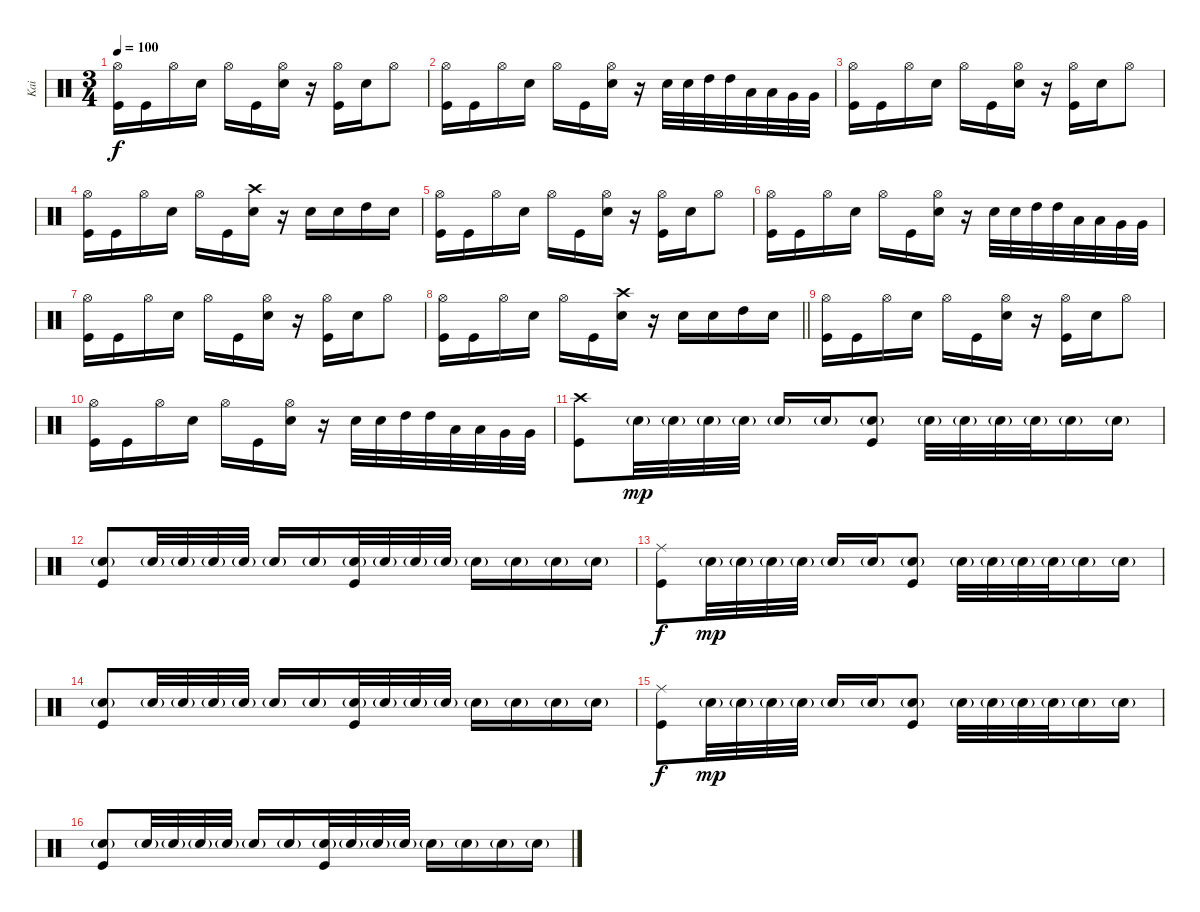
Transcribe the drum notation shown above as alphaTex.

\track ("Kai" "Kai") {instrument percussion}
\staff {score}
\articulation defaults
\ts (3 4)
\tempo 100
\clef neutral
\ks c
("Hi-Hat (open)" "Kick (hit)").16{dy f} "Kick (hit)".16 "Hi-Hat (open)".16 "Snare (hit) 2".16 "Hi-Hat (open)".16 "Kick (hit)".16 ("Hi-Hat (open)" "Snare (hit) 2").16 r.16 ("Hi-Hat (open)" "Kick (hit)").16 "Snare (hit) 2".16 "Hi-Hat (open)".8 |
("Hi-Hat (open)" "Kick (hit)").16 "Kick (hit)".16 "Hi-Hat (open)".16 "Snare (hit) 2".16 "Hi-Hat (open)".16 "Kick (hit)".16 ("Hi-Hat (open)" "Snare (hit) 2").16 r.16 "Snare (hit) 2".32 "Snare (hit) 2".32 "High Tom (hit)".32 "High Tom (hit)".32 "Low Tom (hit)".32 "Low Tom (hit)".32 "Very Low Tom (hit)".32 "Very Low Tom (hit)".32 |
("Hi-Hat (open)" "Kick (hit)").16 "Kick (hit)".16 "Hi-Hat (open)".16 "Snare (hit) 2".16 "Hi-Hat (open)".16 "Kick (hit)".16 ("Hi-Hat (open)" "Snare (hit) 2").16 r.16 ("Hi-Hat (open)" "Kick (hit)").16 "Snare (hit) 2".16 "Hi-Hat (open)".8 |
("Hi-Hat (open)" "Kick (hit)").16 "Kick (hit)".16 "Hi-Hat (open)".16 "Snare (hit) 2".16 "Hi-Hat (open)".16 "Kick (hit)".16 ("Crash high (hit)" "Snare (hit) 2").16 r.16 "Snare (hit) 2".16 "Snare (hit) 2".16 "High Tom (hit)".16 "Snare (hit) 2".16 |
("Hi-Hat (open)" "Kick (hit)").16 "Kick (hit)".16 "Hi-Hat (open)".16 "Snare (hit) 2".16 "Hi-Hat (open)".16 "Kick (hit)".16 ("Hi-Hat (open)" "Snare (hit) 2").16 r.16 ("Hi-Hat (open)" "Kick (hit)").16 "Snare (hit) 2".16 "Hi-Hat (open)".8 |
("Hi-Hat (open)" "Kick (hit)").16 "Kick (hit)".16 "Hi-Hat (open)".16 "Snare (hit) 2".16 "Hi-Hat (open)".16 "Kick (hit)".16 ("Hi-Hat (open)" "Snare (hit) 2").16 r.16 "Snare (hit) 2".32 "Snare (hit) 2".32 "High Tom (hit)".32 "High Tom (hit)".32 "Low Tom (hit)".32 "Low Tom (hit)".32 "Very Low Tom (hit)".32 "Very Low Tom (hit)".32 |
("Hi-Hat (open)" "Kick (hit)").16 "Kick (hit)".16 "Hi-Hat (open)".16 "Snare (hit) 2".16 "Hi-Hat (open)".16 "Kick (hit)".16 ("Hi-Hat (open)" "Snare (hit) 2").16 r.16 ("Hi-Hat (open)" "Kick (hit)").16 "Snare (hit) 2".16 "Hi-Hat (open)".8 |
\barLineRight lightlight
("Hi-Hat (open)" "Kick (hit)").16 "Kick (hit)".16 "Hi-Hat (open)".16 "Snare (hit) 2".16 "Hi-Hat (open)".16 "Kick (hit)".16 ("Crash high (hit)" "Snare (hit) 2").16 r.16 "Snare (hit) 2".16 "Snare (hit) 2".16 "High Tom (hit)".16 "Snare (hit) 2".16 |
("Hi-Hat (open)" "Kick (hit)").16 "Kick (hit)".16 "Hi-Hat (open)".16 "Snare (hit) 2".16 "Hi-Hat (open)".16 "Kick (hit)".16 ("Hi-Hat (open)" "Snare (hit) 2").16 r.16 ("Hi-Hat (open)" "Kick (hit)").16 "Snare (hit) 2".16 "Hi-Hat (open)".8 |
("Hi-Hat (open)" "Kick (hit)").16 "Kick (hit)".16 "Hi-Hat (open)".16 "Snare (hit) 2".16 "Hi-Hat (open)".16 "Kick (hit)".16 ("Hi-Hat (open)" "Snare (hit) 2").16 r.16 "Snare (hit) 2".32 "Snare (hit) 2".32 "High Tom (hit)".32 "High Tom (hit)".32 "Low Tom (hit)".32 "Low Tom (hit)".32 "Very Low Tom (hit)".32 "Very Low Tom (hit)".32 |
("Crash high (hit)" "Kick (hit)").8 "Snare (hit) 2"{g}.32{dy mp} "Snare (hit) 2"{g}.32 "Snare (hit) 2"{g}.32 "Snare (hit) 2"{g}.32 "Snare (hit) 2"{g}.16 "Snare (hit) 2"{g}.16 ("Snare (hit) 2"{g} "Kick (hit)").8 "Snare (hit) 2"{g}.32 "Snare (hit) 2"{g}.32 "Snare (hit) 2"{g}.32 "Snare (hit) 2"{g}.32 "Snare (hit) 2"{g}.16 "Snare (hit) 2"{g}.16 |
("Snare (hit) 2"{g} "Kick (hit)").8 "Snare (hit) 2"{g}.32 "Snare (hit) 2"{g}.32 "Snare (hit) 2"{g}.32 "Snare (hit) 2"{g}.32 "Snare (hit) 2"{g}.16 "Snare (hit) 2"{g}.16 ("Snare (hit) 2"{g} "Kick (hit)").32 "Snare (hit) 2"{g}.32 "Snare (hit) 2"{g}.32 "Snare (hit) 2"{g}.32 "Snare (hit) 2"{g}.16 "Snare (hit) 2"{g}.16 "Snare (hit) 2"{g}.16 "Snare (hit) 2"{g}.16 |
("Ride (middle)" "Kick (hit)").8{dy f} "Snare (hit) 2"{g}.32{dy mp} "Snare (hit) 2"{g}.32 "Snare (hit) 2"{g}.32 "Snare (hit) 2"{g}.32 "Snare (hit) 2"{g}.16 "Snare (hit) 2"{g}.16 ("Snare (hit) 2"{g} "Kick (hit)").8 "Snare (hit) 2"{g}.32 "Snare (hit) 2"{g}.32 "Snare (hit) 2"{g}.32 "Snare (hit) 2"{g}.32 "Snare (hit) 2"{g}.16 "Snare (hit) 2"{g}.16 |
("Snare (hit) 2"{g} "Kick (hit)").8 "Snare (hit) 2"{g}.32 "Snare (hit) 2"{g}.32 "Snare (hit) 2"{g}.32 "Snare (hit) 2"{g}.32 "Snare (hit) 2"{g}.16 "Snare (hit) 2"{g}.16 ("Snare (hit) 2"{g} "Kick (hit)").32 "Snare (hit) 2"{g}.32 "Snare (hit) 2"{g}.32 "Snare (hit) 2"{g}.32 "Snare (hit) 2"{g}.16 "Snare (hit) 2"{g}.16 "Snare (hit) 2"{g}.16 "Snare (hit) 2"{g}.16 |
("Ride (middle)" "Kick (hit)").8{dy f} "Snare (hit) 2"{g}.32{dy mp} "Snare (hit) 2"{g}.32 "Snare (hit) 2"{g}.32 "Snare (hit) 2"{g}.32 "Snare (hit) 2"{g}.16 "Snare (hit) 2"{g}.16 ("Snare (hit) 2"{g} "Kick (hit)").8 "Snare (hit) 2"{g}.32 "Snare (hit) 2"{g}.32 "Snare (hit) 2"{g}.32 "Snare (hit) 2"{g}.32 "Snare (hit) 2"{g}.16 "Snare (hit) 2"{g}.16 |
("Snare (hit) 2"{g} "Kick (hit)").8 "Snare (hit) 2"{g}.32 "Snare (hit) 2"{g}.32 "Snare (hit) 2"{g}.32 "Snare (hit) 2"{g}.32 "Snare (hit) 2"{g}.16 "Snare (hit) 2"{g}.16 ("Snare (hit) 2"{g} "Kick (hit)").32 "Snare (hit) 2"{g}.32 "Snare (hit) 2"{g}.32 "Snare (hit) 2"{g}.32 "Snare (hit) 2"{g}.16 "Snare (hit) 2"{g}.16 "Snare (hit) 2"{g}.16 "Snare (hit) 2"{g}.16
